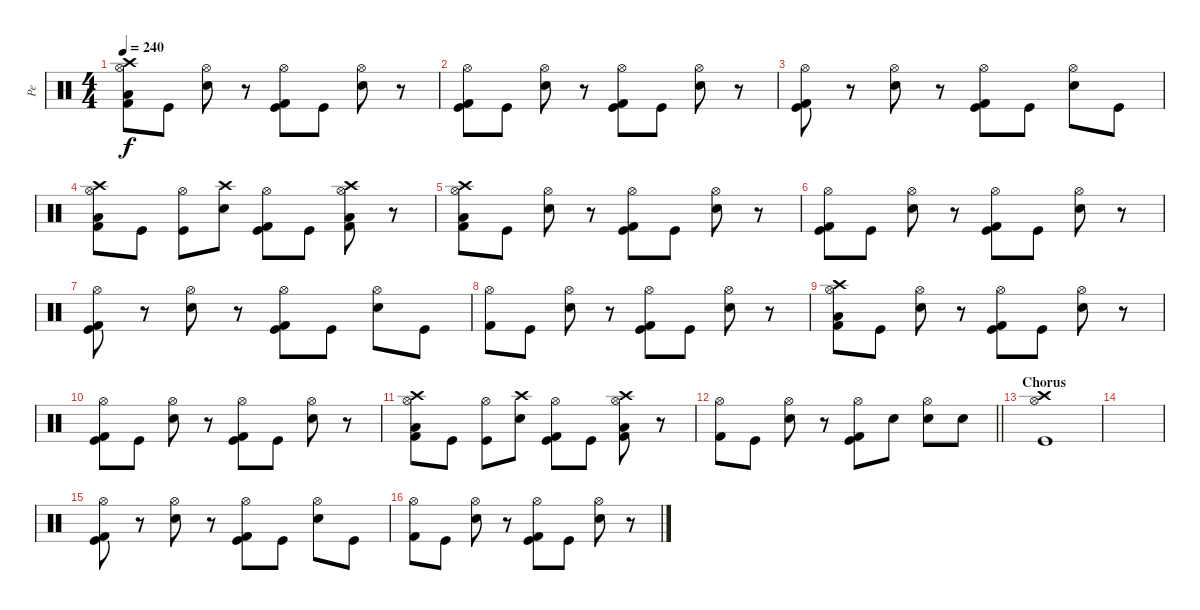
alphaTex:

\track ("Pe" "Pe") {instrument percussion}
\staff {score}
\articulation defaults
\ts (4 4)
\tempo 240
\clef neutral
\ks c
("Low Tom (hit)" "Hi-Hat (open)" "Kick (hit) 2" "Crash high (hit)").8{dy f} "Kick (hit)".8 ("Electric Snare (hit)" "Hi-Hat (open)").8 r.8 ("Kick (hit)" "Hi-Hat (open)" "Kick (hit) 2").8 "Kick (hit)".8 ("Electric Snare (hit)" "Hi-Hat (open)").8 r.8 |
("Kick (hit)" "Hi-Hat (open)" "Kick (hit) 2").8 "Kick (hit)".8 ("Electric Snare (hit)" "Hi-Hat (open)").8 r.8 ("Kick (hit)" "Hi-Hat (open)" "Kick (hit) 2").8 "Kick (hit)".8 ("Electric Snare (hit)" "Hi-Hat (open)").8 r.8 |
("Kick (hit)" "Hi-Hat (open)" "Kick (hit) 2").8 r.8 ("Electric Snare (hit)" "Hi-Hat (open)").8 r.8 ("Kick (hit)" "Hi-Hat (open)" "Kick (hit) 2").8 "Kick (hit)".8 ("Electric Snare (hit)" "Hi-Hat (open)").8 "Kick (hit)".8 |
("Low Tom (hit)" "Hi-Hat (open)" "Kick (hit) 2" "Crash high (hit)").8 "Kick (hit)".8 ("Kick (hit)" "Hi-Hat (open)").8 ("Crash high (hit)" "Electric Snare (hit)").8 ("Kick (hit)" "Hi-Hat (open)" "Kick (hit) 2").8 "Kick (hit)".8 ("Low Tom (hit)" "Hi-Hat (open)" "Kick (hit) 2" "Crash high (hit)").8 r.8 |
("Low Tom (hit)" "Hi-Hat (open)" "Kick (hit) 2" "Crash high (hit)").8 "Kick (hit)".8 ("Electric Snare (hit)" "Hi-Hat (open)").8 r.8 ("Kick (hit)" "Hi-Hat (open)" "Kick (hit) 2").8 "Kick (hit)".8 ("Electric Snare (hit)" "Hi-Hat (open)").8 r.8 |
("Kick (hit)" "Hi-Hat (open)" "Kick (hit) 2").8 "Kick (hit)".8 ("Electric Snare (hit)" "Hi-Hat (open)").8 r.8 ("Kick (hit)" "Hi-Hat (open)" "Kick (hit) 2").8 "Kick (hit)".8 ("Electric Snare (hit)" "Hi-Hat (open)").8 r.8 |
("Kick (hit)" "Hi-Hat (open)" "Kick (hit) 2").8 r.8 ("Electric Snare (hit)" "Hi-Hat (open)").8 r.8 ("Kick (hit)" "Hi-Hat (open)" "Kick (hit) 2").8 "Kick (hit)".8 ("Electric Snare (hit)" "Hi-Hat (open)").8 "Kick (hit)".8 |
("Hi-Hat (open)" "Kick (hit) 2").8 "Kick (hit)".8 ("Electric Snare (hit)" "Hi-Hat (open)").8 r.8 ("Kick (hit)" "Hi-Hat (open)" "Kick (hit) 2").8 "Kick (hit)".8 ("Electric Snare (hit)" "Hi-Hat (open)").8 r.8 |
("Low Tom (hit)" "Hi-Hat (open)" "Kick (hit) 2" "Crash high (hit)").8 "Kick (hit)".8 ("Electric Snare (hit)" "Hi-Hat (open)").8 r.8 ("Kick (hit)" "Hi-Hat (open)" "Kick (hit) 2").8 "Kick (hit)".8 ("Electric Snare (hit)" "Hi-Hat (open)").8 r.8 |
("Kick (hit)" "Hi-Hat (open)" "Kick (hit) 2").8 "Kick (hit)".8 ("Electric Snare (hit)" "Hi-Hat (open)").8 r.8 ("Kick (hit)" "Hi-Hat (open)" "Kick (hit) 2").8 "Kick (hit)".8 ("Electric Snare (hit)" "Hi-Hat (open)").8 r.8 |
("Low Tom (hit)" "Hi-Hat (open)" "Kick (hit) 2" "Crash high (hit)").8 "Kick (hit)".8 ("Kick (hit)" "Hi-Hat (open)").8 ("Crash high (hit)" "Electric Snare (hit)").8 ("Kick (hit)" "Hi-Hat (open)" "Kick (hit) 2").8 "Kick (hit)".8 ("Low Tom (hit)" "Hi-Hat (open)" "Kick (hit) 2" "Crash high (hit)").8 r.8 |
\barLineRight lightlight
("Hi-Hat (open)" "Kick (hit) 2").8 "Kick (hit)".8 ("Electric Snare (hit)" "Hi-Hat (open)").8 r.8 ("Kick (hit)" "Hi-Hat (open)" "Kick (hit) 2").8 "Electric Snare (hit)".8 ("Electric Snare (hit)" "Hi-Hat (open)").8 "Electric Snare (hit)".8 |
\section ("" "Chorus")
("Crash high (hit)" "Kick (hit)" "Hi-Hat (open)").1 |
|
("Kick (hit)" "Hi-Hat (open)" "Kick (hit) 2").8 r.8 ("Electric Snare (hit)" "Hi-Hat (open)").8 r.8 ("Kick (hit)" "Hi-Hat (open)" "Kick (hit) 2").8 "Kick (hit)".8 ("Electric Snare (hit)" "Hi-Hat (open)").8 "Kick (hit)".8 |
("Hi-Hat (open)" "Kick (hit) 2").8 "Kick (hit)".8 ("Electric Snare (hit)" "Hi-Hat (open)").8 r.8 ("Kick (hit)" "Hi-Hat (open)" "Kick (hit) 2").8 "Kick (hit)".8 ("Electric Snare (hit)" "Hi-Hat (open)").8 r.8
